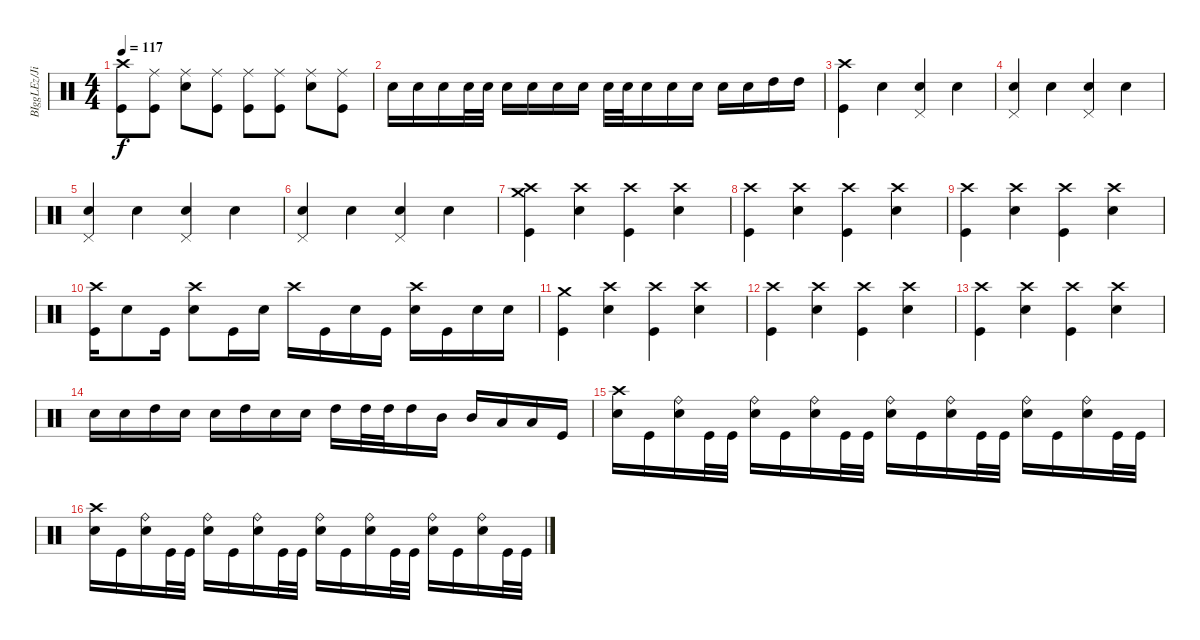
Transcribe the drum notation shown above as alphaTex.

\track ("BIggLEz/Jimmy" "BIggLEz/Ji") {instrument percussion}
\staff {score}
\articulation defaults
\ts (4 4)
\tempo 117
\clef neutral
\ks c
("Crash high (hit)" "Kick (hit)").8{dy f} ("Ride (middle)" "Kick (hit)").8 ("Ride (middle)" "Snare (hit) 2").8 ("Ride (middle)" "Kick (hit)").8 ("Ride (middle)" "Kick (hit)").8 ("Ride (middle)" "Kick (hit)").8 ("Ride (middle)" "Snare (hit) 2").8 ("Ride (middle)" "Kick (hit)").8 |
"Snare (hit) 2".16 "Snare (hit) 2".16 "Snare (hit) 2".16 "Snare (hit) 2".32 "Snare (hit) 2".32 "Snare (hit) 2".16 "Snare (hit) 2".16 "Snare (hit) 2".16 "Snare (hit) 2".16 "Snare (hit) 2".32 "Snare (hit) 2".32 "Snare (hit) 2".16 "Snare (hit) 2".16 "Snare (hit) 2".16 "Snare (hit) 2".16 "Snare (hit) 2".16 "High Tom (hit)".16 "High Tom (hit)".16 |
("Kick (hit)" "Crash high (hit)").4 "Hand Clap (hit)".4 ("Pedal Hi-Hat (hit)" "Hand Clap (hit)").4 "Hand Clap (hit)".4 |
("Pedal Hi-Hat (hit)" "Hand Clap (hit)").4 "Hand Clap (hit)".4 ("Pedal Hi-Hat (hit)" "Hand Clap (hit)").4 "Hand Clap (hit)".4 |
("Pedal Hi-Hat (hit)" "Hand Clap (hit)").4 "Hand Clap (hit)".4 ("Pedal Hi-Hat (hit)" "Hand Clap (hit)").4 "Hand Clap (hit)".4 |
("Pedal Hi-Hat (hit)" "Hand Clap (hit)").4 "Hand Clap (hit)".4 ("Pedal Hi-Hat (hit)" "Hand Clap (hit)").4 "Hand Clap (hit)".4 |
("Crash medium (hit)" "Kick (hit)" "Crash high (hit)").4 ("Snare (hit) 2" "Crash high (hit)").4 ("Kick (hit)" "Crash high (hit)").4 ("Snare (hit) 2" "Crash high (hit)").4 |
("Kick (hit)" "Crash high (hit)").4 ("Snare (hit) 2" "Crash high (hit)").4 ("Kick (hit)" "Crash high (hit)").4 ("Snare (hit) 2" "Crash high (hit)").4 |
("Kick (hit)" "Crash high (hit)").4 ("Snare (hit) 2" "Crash high (hit)").4 ("Kick (hit)" "Crash high (hit)").4 ("Snare (hit) 2" "Crash high (hit)").4 |
("Kick (hit)" "Crash high (hit)").16 "Snare (hit) 2".8 "Kick (hit)".16 ("Snare (hit) 2" "Crash high (hit)").8 "Kick (hit)".16 "Snare (hit) 2".16 "Crash high (hit)".16 "Kick (hit)".16 "Snare (hit) 2".16 "Kick (hit)".16 ("Snare (hit) 2" "Crash high (hit)").16 "Kick (hit)".16 "Snare (hit) 2".16 "Snare (hit) 2".16 |
("Crash medium (hit)" "Kick (hit)").4 ("Snare (hit) 2" "Crash high (hit)").4 ("Kick (hit)" "Crash high (hit)").4 ("Snare (hit) 2" "Crash high (hit)").4 |
("Kick (hit)" "Crash high (hit)").4 ("Snare (hit) 2" "Crash high (hit)").4 ("Kick (hit)" "Crash high (hit)").4 ("Snare (hit) 2" "Crash high (hit)").4 |
("Kick (hit)" "Crash high (hit)").4 ("Snare (hit) 2" "Crash high (hit)").4 ("Kick (hit)" "Crash high (hit)").4 ("Snare (hit) 2" "Crash high (hit)").4 |
"Snare (hit) 2".16 "Snare (hit) 2".16 "High Tom (hit)".16 "Snare (hit) 2".16 "Snare (hit) 2".16 "High Tom (hit)".16 "Snare (hit) 2".16 "Snare (hit) 2".16 "High Tom (hit)".16 "High Tom (hit)".32 "High Tom (hit)".32 "High Tom (hit)".16 "Mid Tom (hit)".16 "Mid Tom (hit)".16 "Low Tom (hit)".16 "Low Tom (hit)".16 "Kick (hit)".16 |
("Snare (hit) 2" "Crash high (hit)").16 "Kick (hit)".16 ("Snare (hit) 2" "Ride (bell)").16 "Kick (hit)".32 "Kick (hit)".32 ("Snare (hit) 2" "Ride (bell)").16 "Kick (hit)".16 ("Snare (hit) 2" "Ride (bell)").16 "Kick (hit)".32 "Kick (hit)".32 ("Snare (hit) 2" "Ride (bell)").16 "Kick (hit)".16 ("Snare (hit) 2" "Ride (bell)").16 "Kick (hit)".32 "Kick (hit)".32 ("Snare (hit) 2" "Ride (bell)").16 "Kick (hit)".16 ("Snare (hit) 2" "Ride (bell)").16 "Kick (hit)".32 "Kick (hit)".32 |
("Snare (hit) 2" "Crash high (hit)").16 "Kick (hit)".16 ("Snare (hit) 2" "Ride (bell)").16 "Kick (hit)".32 "Kick (hit)".32 ("Snare (hit) 2" "Ride (bell)").16 "Kick (hit)".16 ("Snare (hit) 2" "Ride (bell)").16 "Kick (hit)".32 "Kick (hit)".32 ("Snare (hit) 2" "Ride (bell)").16 "Kick (hit)".16 ("Snare (hit) 2" "Ride (bell)").16 "Kick (hit)".32 "Kick (hit)".32 ("Snare (hit) 2" "Ride (bell)").16 "Kick (hit)".16 ("Snare (hit) 2" "Ride (bell)").16 "Kick (hit)".32 "Kick (hit)".32
